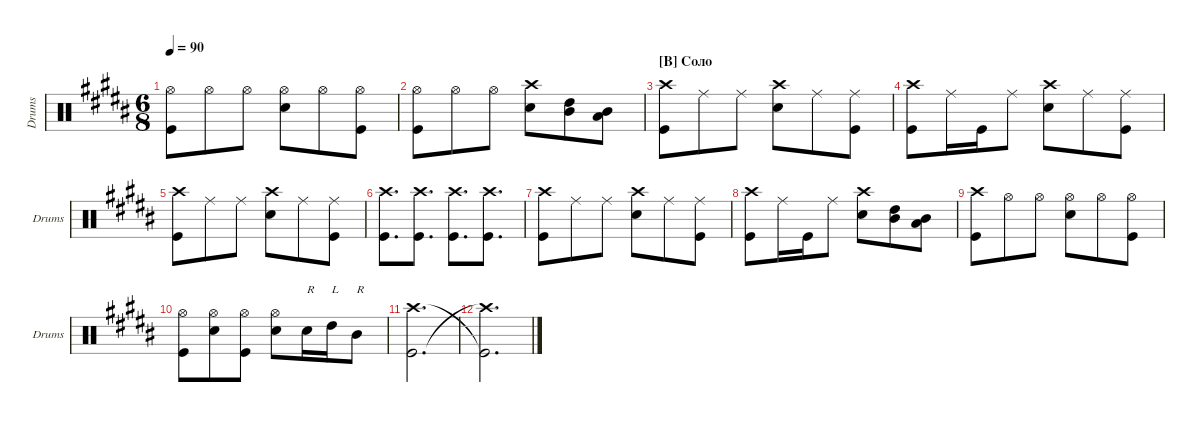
\defaultSystemsLayout 4
\hideDynamics
\bracketExtendMode groupsimilarinstruments
\singleTrackTrackNamePolicy allsystems
\multiTrackTrackNamePolicy allsystems
\otherSystemsTrackNameOrientation horizontal
\track ("Drum" "Drums") {instrument percussion}
\staff {score}
\articulation defaults
\ts (6 8)
\tempo 90
\clef neutral
\ks b
("Kick (hit)" "Hi-Hat (open)").8{dy mf} "Hi-Hat (open)".8 "Hi-Hat (open)".8 ("Hi-Hat (open)" "Snare (hit) 2").8 "Hi-Hat (open)".8 ("Hi-Hat (open)" "Kick (hit)").8 |
("Kick (hit)" "Hi-Hat (open)").8 "Hi-Hat (open)".8 "Hi-Hat (open)".8 ("Snare (hit) 2" "Crash high (hit)").8 ("High Tom (hit)" "Mid Tom (hit)").8 ("Mid Tom (hit)" "Low Tom (hit)").8 |
\section ("B" "Соло")
("Crash high (hit)" "Kick (hit)").8 "Ride (middle)".8 "Ride (middle)".8 ("Snare (hit) 2" "Crash high (hit)").8 "Ride (middle)".8 ("Ride (middle)" "Kick (hit)").8 |
("Kick (hit)" "Crash high (hit)").8 "Ride (middle)".16 "Kick (hit)".16 "Ride (middle)".8 ("Snare (hit) 2" "Crash high (hit)").8 "Ride (middle)".8 ("Ride (middle)" "Kick (hit)").8 |
("Crash high (hit)" "Kick (hit)").8 "Ride (middle)".8 "Ride (middle)".8 ("Snare (hit) 2" "Crash high (hit)").8 "Ride (middle)".8 ("Ride (middle)" "Kick (hit)").8 |
("Kick (hit)" "Crash high (hit)").8{d} ("Kick (hit)" "Crash high (hit)").8{d} ("Kick (hit)" "Crash high (hit)").8{d} ("Kick (hit)" "Crash high (hit)").8{d} |
("Crash high (hit)" "Kick (hit)").8 "Ride (middle)".8 "Ride (middle)".8 ("Snare (hit) 2" "Crash high (hit)").8 "Ride (middle)".8 ("Ride (middle)" "Kick (hit)").8 |
("Kick (hit)" "Crash high (hit)").8 "Ride (middle)".16 "Kick (hit)".16 "Ride (middle)".8 ("Snare (hit) 2" "Crash high (hit)").8 ("High Tom (hit)" "Mid Tom (hit)").8 ("Mid Tom (hit)" "Low Tom (hit)").8 |
("Kick (hit)" "Crash high (hit)").8 "Hi-Hat (open)".8 "Hi-Hat (open)".8 ("Hi-Hat (open)" "Snare (hit) 2").8 "Hi-Hat (open)".8 ("Hi-Hat (open)" "Kick (hit)").8 |
("Kick (hit)" "Hi-Hat (open)").8 ("Hi-Hat (open)" "Snare (hit) 2").8 ("Hi-Hat (open)" "Kick (hit)").8 ("Hi-Hat (open)" "Snare (hit) 2").8 "Snare (hit) 2".16{txt "R"} "High Tom (hit)".16{txt "L"} "Mid Tom (hit)".8{txt "R"} |
("Kick (hit)" "Crash high (hit)").2{d} |
("Crash high (hit)"{t} "Kick (hit)"{t}).2{d}
